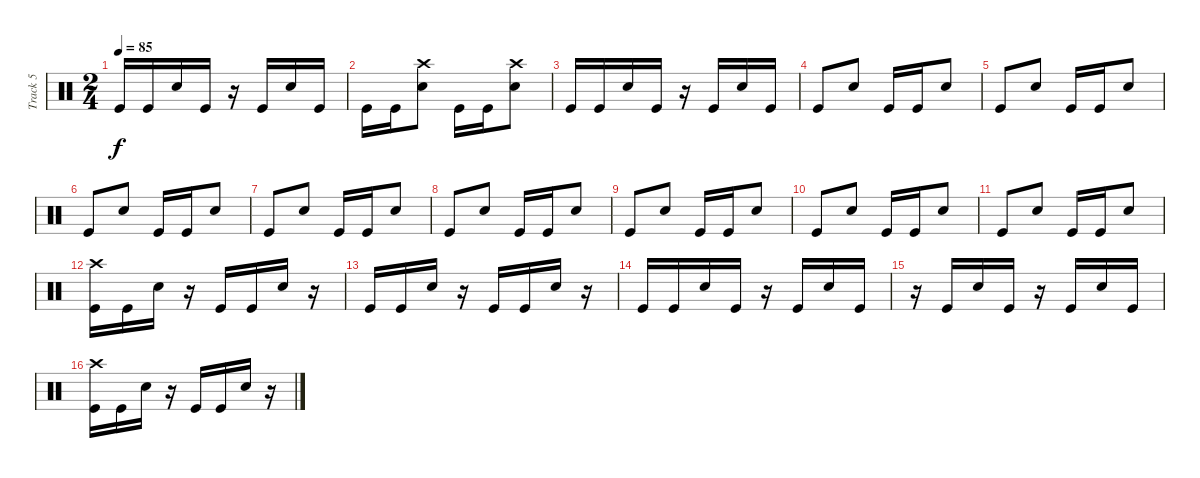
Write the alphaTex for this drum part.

\track ("Track 5" "Track 5") {instrument percussion}
\staff {score}
\articulation defaults
\ts (2 4)
\tempo 85
\clef neutral
\ks c "Kick (hit)".16{dy f} "Kick (hit)".16 "Electric Snare (hit)".16 "Kick (hit)".16
r.16 "Kick (hit)".16 "Electric Snare (hit)".16 "Kick (hit)".16 |
"Kick (hit)".16 "Kick (hit)".16 ("Electric Snare (hit)" "Crash high (hit)").8 "Kick (hit)".16 "Kick (hit)".16 ("Electric Snare (hit)" "Crash high (hit)").8 |
"Kick (hit)".16 "Kick (hit)".16 "Electric Snare (hit)".16 "Kick (hit)".16 r.16 "Kick (hit)".16 "Electric Snare (hit)".16 "Kick (hit)".16 |
"Kick (hit)".8 "Electric Snare (hit)".8 "Kick (hit)".16 "Kick (hit)".16 "Electric Snare (hit)".8 |
"Kick (hit)".8 "Electric Snare (hit)".8 "Kick (hit)".16 "Kick (hit)".16 "Electric Snare (hit)".8 |
"Kick (hit)".8 "Electric Snare (hit)".8 "Kick (hit)".16 "Kick (hit)".16 "Electric Snare (hit)".8 |
"Kick (hit)".8 "Electric Snare (hit)".8 "Kick (hit)".16 "Kick (hit)".16 "Electric Snare (hit)".8 |
"Kick (hit)".8 "Electric Snare (hit)".8 "Kick (hit)".16 "Kick (hit)".16 "Electric Snare (hit)".8 |
"Kick (hit)".8 "Electric Snare (hit)".8 "Kick (hit)".16 "Kick (hit)".16 "Electric Snare (hit)".8 |
"Kick (hit)".8 "Electric Snare (hit)".8 "Kick (hit)".16 "Kick (hit)".16 "Electric Snare (hit)".8 |
"Kick (hit)".8 "Electric Snare (hit)".8 "Kick (hit)".16 "Kick (hit)".16 "Electric Snare (hit)".8 |
("Kick (hit)" "Crash high (hit)").16 "Kick (hit)".16 "Electric Snare (hit)".16 r.16 "Kick (hit)".16 "Kick (hit)".16 "Electric Snare (hit)".16 r.16 |
"Kick (hit)".16 "Kick (hit)".16 "Electric Snare (hit)".16 r.16 "Kick (hit)".16 "Kick (hit)".16 "Electric Snare (hit)".16 r.16 |
"Kick (hit)".16 "Kick (hit)".16 "Electric Snare (hit)".16 "Kick (hit)".16 r.16 "Kick (hit)".16 "Electric Snare (hit)".16 "Kick (hit)".16 |
r.16 "Kick (hit)".16 "Electric Snare (hit)".16 "Kick (hit)".16 r.16 "Kick (hit)".16 "Electric Snare (hit)".16 "Kick (hit)".16 |
("Kick (hit)" "Crash high (hit)").16 "Kick (hit)".16 "Electric Snare (hit)".16 r.16 "Kick (hit)".16 "Kick (hit)".16 "Electric Snare (hit)".16 r.16
